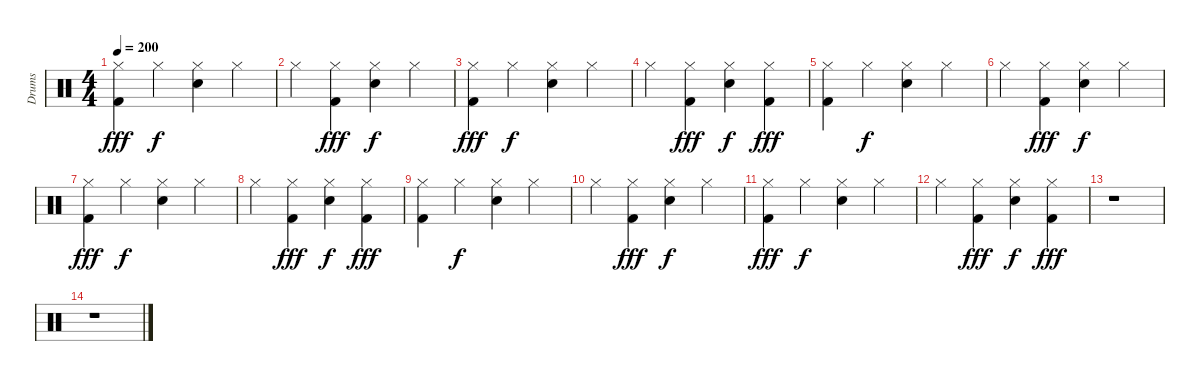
\track ("Drums" "Drums") {instrument percussion}
\staff {score}
\articulation defaults
\ts (4 4)
\tempo 200
\clef neutral
\ks c
("Hi-Hat (closed)" "Kick (hit) 2").4{dy fff} "Hi-Hat (closed)".4{dy f} ("Hi-Hat (closed)" "Electric Snare (hit)").4 "Hi-Hat (closed)".4 |
"Hi-Hat (closed)".4 ("Hi-Hat (closed)" "Kick (hit) 2").4{dy fff} ("Hi-Hat (closed)" "Electric Snare (hit)").4{dy f} "Hi-Hat (closed)".4 |
("Hi-Hat (closed)" "Kick (hit) 2").4{dy fff} "Hi-Hat (closed)".4{dy f} ("Hi-Hat (closed)" "Electric Snare (hit)").4 "Hi-Hat (closed)".4 |
"Hi-Hat (closed)".4 ("Hi-Hat (closed)" "Kick (hit) 2").4{dy fff} ("Hi-Hat (closed)" "Electric Snare (hit)").4{dy f} ("Hi-Hat (closed)" "Kick (hit) 2").4{dy fff} |
("Hi-Hat (closed)" "Kick (hit) 2").4 "Hi-Hat (closed)".4{dy f} ("Hi-Hat (closed)" "Electric Snare (hit)").4 "Hi-Hat (closed)".4 |
"Hi-Hat (closed)".4 ("Hi-Hat (closed)" "Kick (hit) 2").4{dy fff} ("Hi-Hat (closed)" "Electric Snare (hit)").4{dy f} "Hi-Hat (closed)".4 |
("Hi-Hat (closed)" "Kick (hit) 2").4{dy fff} "Hi-Hat (closed)".4{dy f} ("Hi-Hat (closed)" "Electric Snare (hit)").4 "Hi-Hat (closed)".4 |
"Hi-Hat (closed)".4 ("Hi-Hat (closed)" "Kick (hit) 2").4{dy fff} ("Hi-Hat (closed)" "Electric Snare (hit)").4{dy f} ("Hi-Hat (closed)" "Kick (hit) 2").4{dy fff} |
("Hi-Hat (closed)" "Kick (hit) 2").4 "Hi-Hat (closed)".4{dy f} ("Hi-Hat (closed)" "Electric Snare (hit)").4 "Hi-Hat (closed)".4 |
"Hi-Hat (closed)".4 ("Hi-Hat (closed)" "Kick (hit) 2").4{dy fff} ("Hi-Hat (closed)" "Electric Snare (hit)").4{dy f} "Hi-Hat (closed)".4 |
("Hi-Hat (closed)" "Kick (hit) 2").4{dy fff} "Hi-Hat (closed)".4{dy f} ("Hi-Hat (closed)" "Electric Snare (hit)").4 "Hi-Hat (closed)".4 |
"Hi-Hat (closed)".4 ("Hi-Hat (closed)" "Kick (hit) 2").4{dy fff} ("Hi-Hat (closed)" "Electric Snare (hit)").4{dy f} ("Hi-Hat (closed)" "Kick (hit) 2").4{dy fff} |
r.1 |
r.1
